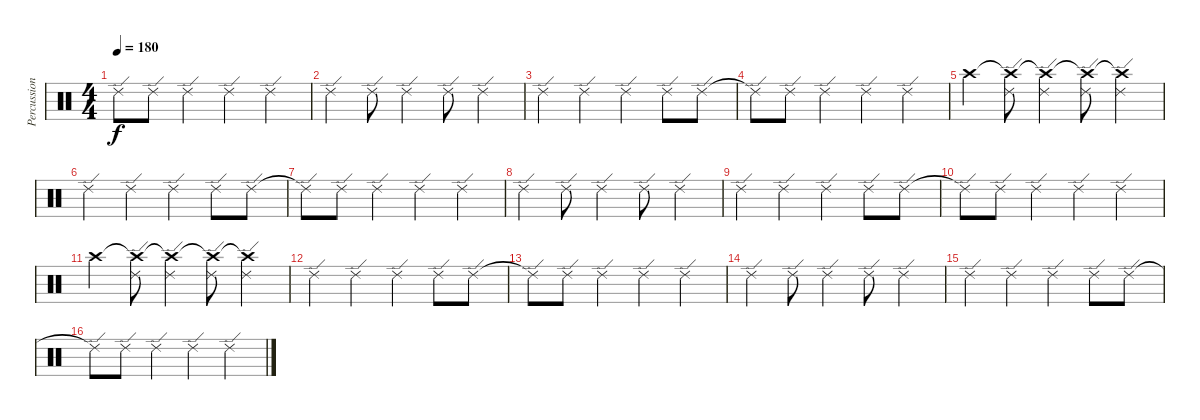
\track ("Percussion" "Percussion") {instrument percussion}
\staff {score}
\articulation defaults
\ts (4 4)
\tempo 180
\clef neutral
\ks c "Ride (edge) 2"{t}.8{dy f} "Ride (edge) 2".8 "Ride (edge) 2".4 "Ride (edge) 2".4 "Ride (edge) 2".4
|
"Ride (edge) 2".4 "Ride (edge) 2".8 "Ride (edge) 2".4 "Ride (edge) 2".8 "Ride (edge) 2".4 |
"Ride (edge) 2".4 "Ride (edge) 2".4 "Ride (edge) 2".4 "Ride (edge) 2".8 "Ride (edge) 2".8 |
"Ride (edge) 2"{t}.8 "Ride (edge) 2".8 "Ride (edge) 2".4 "Ride (edge) 2".4 "Ride (edge) 2".4 |
"Crash high (hit)".4 ("Crash high (hit)"{t} "Ride (edge) 2").8 ("Crash high (hit)"{t} "Ride (edge) 2").4 ("Crash high (hit)"{t} "Ride (edge) 2").8 ("Crash high (hit)"{t} "Ride (edge) 2").4 |
"Ride (edge) 2".4 "Ride (edge) 2".4 "Ride (edge) 2".4 "Ride (edge) 2".8 "Ride (edge) 2".8 |
"Ride (edge) 2"{t}.8 "Ride (edge) 2".8 "Ride (edge) 2".4 "Ride (edge) 2".4 "Ride (edge) 2".4 |
"Ride (edge) 2".4 "Ride (edge) 2".8 "Ride (edge) 2".4 "Ride (edge) 2".8 "Ride (edge) 2".4 |
"Ride (edge) 2".4 "Ride (edge) 2".4 "Ride (edge) 2".4 "Ride (edge) 2".8 "Ride (edge) 2".8 |
"Ride (edge) 2"{t}.8 "Ride (edge) 2".8 "Ride (edge) 2".4 "Ride (edge) 2".4 "Ride (edge) 2".4 |
"Crash high (hit)".4 ("Crash high (hit)"{t} "Ride (edge) 2").8 ("Crash high (hit)"{t} "Ride (edge) 2").4 ("Crash high (hit)"{t} "Ride (edge) 2").8 ("Crash high (hit)"{t} "Ride (edge) 2").4 |
"Ride (edge) 2".4 "Ride (edge) 2".4 "Ride (edge) 2".4 "Ride (edge) 2".8 "Ride (edge) 2".8 |
"Ride (edge) 2"{t}.8 "Ride (edge) 2".8 "Ride (edge) 2".4 "Ride (edge) 2".4 "Ride (edge) 2".4 |
"Ride (edge) 2".4 "Ride (edge) 2".8 "Ride (edge) 2".4 "Ride (edge) 2".8 "Ride (edge) 2".4 |
"Ride (edge) 2".4 "Ride (edge) 2".4 "Ride (edge) 2".4 "Ride (edge) 2".8 "Ride (edge) 2".8 |
"Ride (edge) 2"{t}.8 "Ride (edge) 2".8 "Ride (edge) 2".4 "Ride (edge) 2".4 "Ride (edge) 2".4
